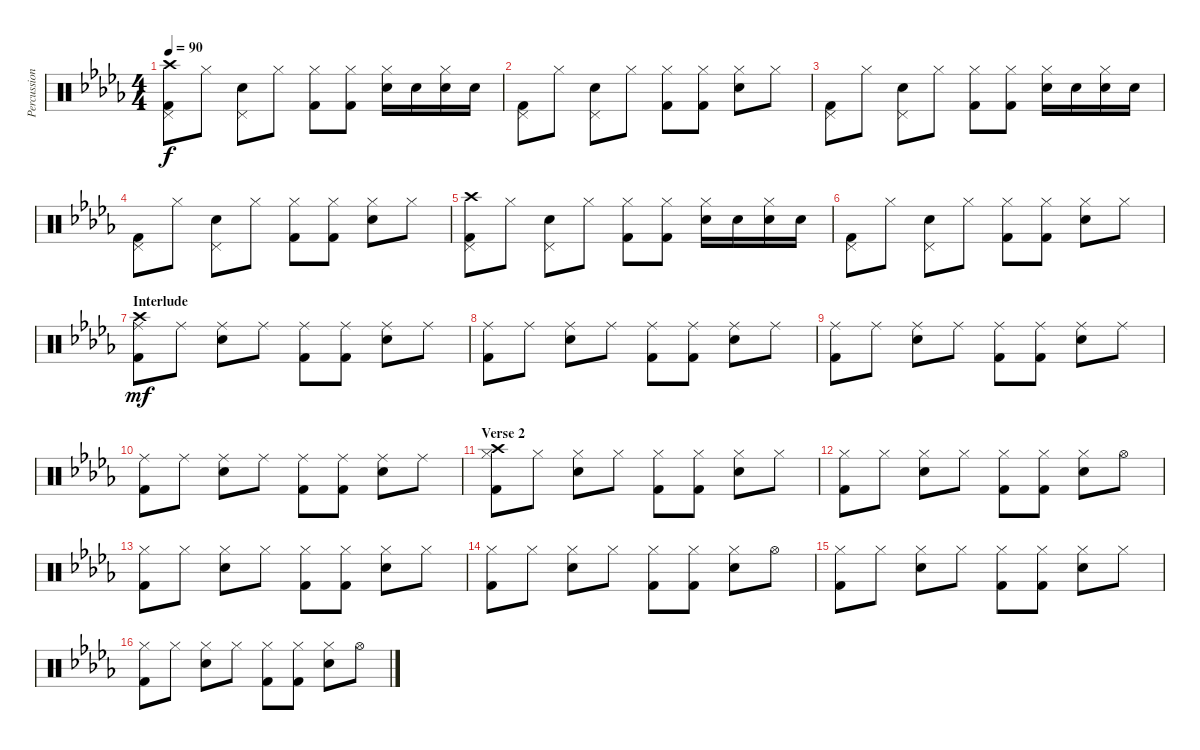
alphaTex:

\track ("Percussion" "Percussion") {instrument percussion}
\staff {score}
\articulation defaults
\ts (4 4)
\tempo 90
\clef neutral
\ks db
("Pedal Hi-Hat (hit)" "Crash high (hit)" "Kick (hit) 2").8{dy f} "Hi-Hat (closed)".8 ("Pedal Hi-Hat (hit)" "Snare (hit) 2").8 "Hi-Hat (closed)".8 ("Hi-Hat (closed)" "Kick (hit) 2").8 ("Hi-Hat (closed)" "Kick (hit) 2").8 ("Hi-Hat (closed)" "Snare (hit) 2").16 "Snare (hit) 2".16 ("Hi-Hat (closed)" "Snare (hit) 2").16 "Snare (hit) 2".16 |
("Pedal Hi-Hat (hit)" "Kick (hit) 2").8 "Hi-Hat (closed)".8 ("Pedal Hi-Hat (hit)" "Snare (hit) 2").8 "Hi-Hat (closed)".8 ("Hi-Hat (closed)" "Kick (hit) 2").8 ("Hi-Hat (closed)" "Kick (hit) 2").8 ("Hi-Hat (closed)" "Snare (hit) 2").8 "Hi-Hat (closed)".8 |
("Pedal Hi-Hat (hit)" "Kick (hit) 2").8 "Hi-Hat (closed)".8 ("Pedal Hi-Hat (hit)" "Snare (hit) 2").8 "Hi-Hat (closed)".8 ("Hi-Hat (closed)" "Kick (hit) 2").8 ("Hi-Hat (closed)" "Kick (hit) 2").8 ("Hi-Hat (closed)" "Snare (hit) 2").16 "Snare (hit) 2".16 ("Hi-Hat (closed)" "Snare (hit) 2").16 "Snare (hit) 2".16 |
("Pedal Hi-Hat (hit)" "Kick (hit) 2").8 "Hi-Hat (closed)".8 ("Pedal Hi-Hat (hit)" "Snare (hit) 2").8 "Hi-Hat (closed)".8 ("Hi-Hat (closed)" "Kick (hit) 2").8 ("Hi-Hat (closed)" "Kick (hit) 2").8 ("Hi-Hat (closed)" "Snare (hit) 2").8 "Hi-Hat (closed)".8 |
("Pedal Hi-Hat (hit)" "Crash high (hit)" "Kick (hit) 2").8 "Hi-Hat (closed)".8 ("Pedal Hi-Hat (hit)" "Snare (hit) 2").8 "Hi-Hat (closed)".8 ("Hi-Hat (closed)" "Kick (hit) 2").8 ("Hi-Hat (closed)" "Kick (hit) 2").8 ("Hi-Hat (closed)" "Snare (hit) 2").16 "Snare (hit) 2".16 ("Hi-Hat (closed)" "Snare (hit) 2").16 "Snare (hit) 2".16 |
("Pedal Hi-Hat (hit)" "Kick (hit) 2").8 "Hi-Hat (closed)".8 ("Pedal Hi-Hat (hit)" "Snare (hit) 2").8 "Hi-Hat (closed)".8 ("Hi-Hat (closed)" "Kick (hit) 2").8 ("Hi-Hat (closed)" "Kick (hit) 2").8 ("Hi-Hat (closed)" "Snare (hit) 2").8 "Hi-Hat (closed)".8 |
\section ("" "Interlude")
("Ride (middle)" "Crash high (hit)" "Kick (hit) 2").8{dy mf} "Ride (middle)".8 ("Ride (middle)" "Snare (hit) 2").8 "Ride (middle)".8 ("Ride (middle)" "Kick (hit) 2").8 ("Ride (middle)" "Kick (hit) 2").8 ("Ride (middle)" "Snare (hit) 2").8 "Ride (middle)".8 |
("Ride (middle)" "Kick (hit) 2").8 "Ride (middle)".8 ("Ride (middle)" "Snare (hit) 2").8 "Ride (middle)".8 ("Ride (middle)" "Kick (hit) 2").8 ("Ride (middle)" "Kick (hit) 2").8 ("Ride (middle)" "Snare (hit) 2").8 "Ride (middle)".8 |
("Ride (middle)" "Kick (hit) 2").8 "Ride (middle)".8 ("Ride (middle)" "Snare (hit) 2").8 "Ride (middle)".8 ("Ride (middle)" "Kick (hit) 2").8 ("Ride (middle)" "Kick (hit) 2").8 ("Ride (middle)" "Snare (hit) 2").8 "Ride (middle)".8 |
("Ride (middle)" "Kick (hit) 2").8 "Ride (middle)".8 ("Ride (middle)" "Snare (hit) 2").8 "Ride (middle)".8 ("Ride (middle)" "Kick (hit) 2").8 ("Ride (middle)" "Kick (hit) 2").8 ("Ride (middle)" "Snare (hit) 2").8 "Ride (middle)".8 |
\section ("" "Verse 2")
("Hi-Hat (closed)" "Crash high (hit)" "Kick (hit) 2").8 "Hi-Hat (closed)".8 ("Hi-Hat (closed)" "Snare (hit) 2").8 "Hi-Hat (closed)".8 ("Hi-Hat (closed)" "Kick (hit) 2").8 ("Hi-Hat (closed)" "Kick (hit) 2").8 ("Hi-Hat (closed)" "Snare (hit) 2").8 "Hi-Hat (closed)".8 |
("Hi-Hat (closed)" "Kick (hit) 2").8 "Hi-Hat (closed)".8 ("Hi-Hat (closed)" "Snare (hit) 2").8 "Hi-Hat (closed)".8 ("Hi-Hat (closed)" "Kick (hit) 2").8 ("Hi-Hat (closed)" "Kick (hit) 2").8 ("Hi-Hat (closed)" "Snare (hit) 2").8 "Hi-Hat (open)".8 |
("Hi-Hat (closed)" "Kick (hit) 2").8 "Hi-Hat (closed)".8 ("Hi-Hat (closed)" "Snare (hit) 2").8 "Hi-Hat (closed)".8 ("Hi-Hat (closed)" "Kick (hit) 2").8 ("Hi-Hat (closed)" "Kick (hit) 2").8 ("Hi-Hat (closed)" "Snare (hit) 2").8 "Hi-Hat (closed)".8 |
("Hi-Hat (closed)" "Kick (hit) 2").8 "Hi-Hat (closed)".8 ("Hi-Hat (closed)" "Snare (hit) 2").8 "Hi-Hat (closed)".8 ("Hi-Hat (closed)" "Kick (hit) 2").8 ("Hi-Hat (closed)" "Kick (hit) 2").8 ("Hi-Hat (closed)" "Snare (hit) 2").8 "Hi-Hat (open)".8 |
("Hi-Hat (closed)" "Kick (hit) 2").8 "Hi-Hat (closed)".8 ("Hi-Hat (closed)" "Snare (hit) 2").8 "Hi-Hat (closed)".8 ("Hi-Hat (closed)" "Kick (hit) 2").8 ("Hi-Hat (closed)" "Kick (hit) 2").8 ("Hi-Hat (closed)" "Snare (hit) 2").8 "Hi-Hat (closed)".8 |
("Hi-Hat (closed)" "Kick (hit) 2").8 "Hi-Hat (closed)".8 ("Hi-Hat (closed)" "Snare (hit) 2").8 "Hi-Hat (closed)".8 ("Hi-Hat (closed)" "Kick (hit) 2").8 ("Hi-Hat (closed)" "Kick (hit) 2").8 ("Hi-Hat (closed)" "Snare (hit) 2").8 "Hi-Hat (open)".8
